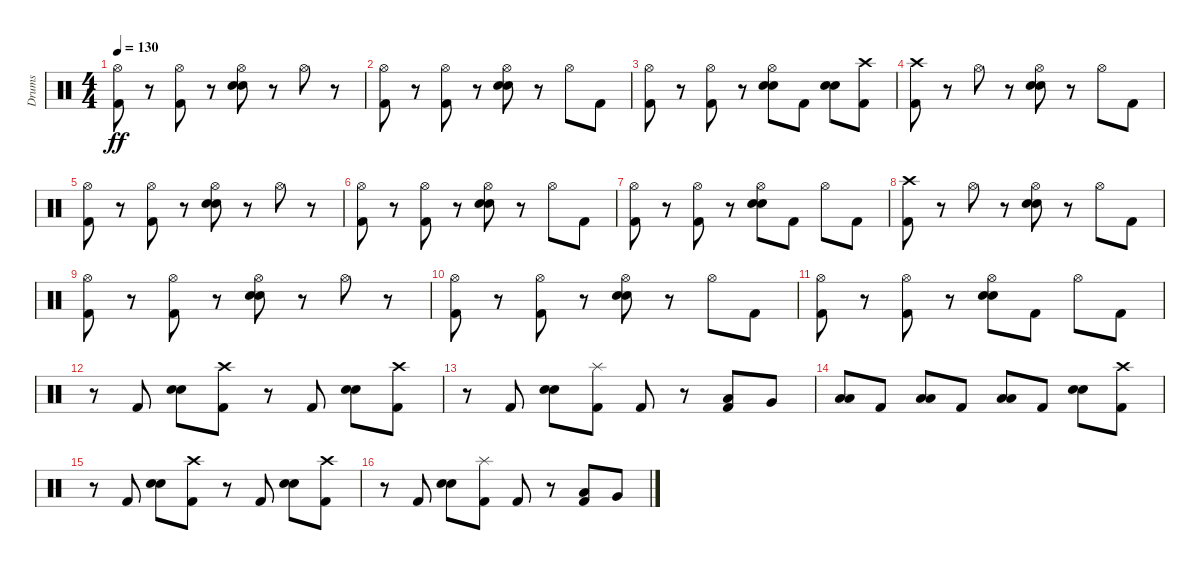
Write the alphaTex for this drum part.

\track ("Drums" "Drums") {instrument percussion}
\staff {score}
\articulation defaults
\ts (4 4)
\tempo 130
\clef neutral
\ks c
("Hi-Hat (open)" "Kick (hit) 2").8{dy ff} r.8 ("Hi-Hat (open)" "Kick (hit) 2").8 r.8 ("Hi-Hat (open)" "Electric Snare (hit)" "Electric Snare (hit)").8 r.8 "Hi-Hat (open)".8 r.8 |
("Hi-Hat (open)" "Kick (hit) 2").8 r.8 ("Hi-Hat (open)" "Kick (hit) 2").8 r.8 ("Hi-Hat (open)" "Electric Snare (hit)" "Electric Snare (hit)").8 r.8 "Hi-Hat (open)".8 "Kick (hit) 2".8 |
("Hi-Hat (open)" "Kick (hit) 2").8 r.8 ("Hi-Hat (open)" "Kick (hit) 2").8 r.8 ("Hi-Hat (open)" "Electric Snare (hit)" "Electric Snare (hit)").8 "Kick (hit) 2".8 ("Electric Snare (hit)" "Electric Snare (hit)").8{bd 240} ("Crash high (hit)" "Kick (hit) 2").8 |
("Crash high (hit)" "Kick (hit) 2").8 r.8 "Hi-Hat (open)".8 r.8 ("Hi-Hat (open)" "Electric Snare (hit)" "Electric Snare (hit)").8 r.8 "Hi-Hat (open)".8 "Kick (hit) 2".8 |
("Hi-Hat (open)" "Kick (hit) 2").8 r.8 ("Hi-Hat (open)" "Kick (hit) 2").8 r.8 ("Hi-Hat (open)" "Electric Snare (hit)" "Electric Snare (hit)").8 r.8 "Hi-Hat (open)".8 r.8 |
("Hi-Hat (open)" "Kick (hit) 2").8 r.8 ("Hi-Hat (open)" "Kick (hit) 2").8 r.8 ("Hi-Hat (open)" "Electric Snare (hit)" "Electric Snare (hit)").8 r.8 "Hi-Hat (open)".8 "Kick (hit) 2".8 |
("Hi-Hat (open)" "Kick (hit) 2").8 r.8 ("Hi-Hat (open)" "Kick (hit) 2").8 r.8 ("Hi-Hat (open)" "Electric Snare (hit)" "Electric Snare (hit)").8 "Kick (hit) 2".8 "Hi-Hat (open)".8 "Kick (hit) 2".8 |
("Crash high (hit)" "Kick (hit) 2").8 r.8 "Hi-Hat (open)".8 r.8 ("Hi-Hat (open)" "Electric Snare (hit)" "Electric Snare (hit)").8 r.8 "Hi-Hat (open)".8 "Kick (hit) 2".8 |
("Hi-Hat (open)" "Kick (hit) 2").8 r.8 ("Hi-Hat (open)" "Kick (hit) 2").8 r.8 ("Hi-Hat (open)" "Electric Snare (hit)" "Electric Snare (hit)").8 r.8 "Hi-Hat (open)".8 r.8 |
("Hi-Hat (open)" "Kick (hit) 2").8 r.8 ("Hi-Hat (open)" "Kick (hit) 2").8 r.8 ("Hi-Hat (open)" "Electric Snare (hit)" "Electric Snare (hit)").8 r.8 "Hi-Hat (open)".8 "Kick (hit) 2".8 |
("Hi-Hat (open)" "Kick (hit) 2").8 r.8 ("Hi-Hat (open)" "Kick (hit) 2").8 r.8 ("Hi-Hat (open)" "Electric Snare (hit)" "Electric Snare (hit)").8 "Kick (hit) 2".8 "Hi-Hat (open)".8 "Kick (hit) 2".8 |
r.8 "Kick (hit) 2".8 ("Electric Snare (hit)" "Electric Snare (hit)").8{bd 240} ("Crash high (hit)" "Kick (hit) 2").8 r.8 "Kick (hit) 2".8 ("Electric Snare (hit)" "Electric Snare (hit)").8{bd 240} ("Crash high (hit)" "Kick (hit) 2").8 |
r.8 "Kick (hit) 2".8 ("Electric Snare (hit)" "Electric Snare (hit)").8{bd 240} ("Splash (hit)" "Kick (hit) 2").8 "Kick (hit) 2".8 r.8 ("Low Floor Tom (hit)" "Kick (hit) 2").8 "Very Low Tom (hit)".8 |
("Low Tom (hit)" "Low Tom (hit)").8 "Kick (hit) 2".8 ("Low Tom (hit)" "Low Tom (hit)").8 "Kick (hit) 2".8 ("Low Tom (hit)" "Low Tom (hit)").8 "Kick (hit) 2".8 ("Electric Snare (hit)" "Electric Snare (hit)").8{bd 240} ("Crash high (hit)" "Kick (hit) 2").8 |
r.8 "Kick (hit) 2".8 ("Electric Snare (hit)" "Electric Snare (hit)").8{bd 240} ("Crash high (hit)" "Kick (hit) 2").8 r.8 "Kick (hit) 2".8 ("Electric Snare (hit)" "Electric Snare (hit)").8{bd 240} ("Crash high (hit)" "Kick (hit) 2").8 |
r.8 "Kick (hit) 2".8 ("Electric Snare (hit)" "Electric Snare (hit)").8{bd 240} ("Splash (hit)" "Kick (hit) 2").8 "Kick (hit) 2".8 r.8 ("Low Floor Tom (hit)" "Kick (hit) 2").8 "Very Low Tom (hit)".8
